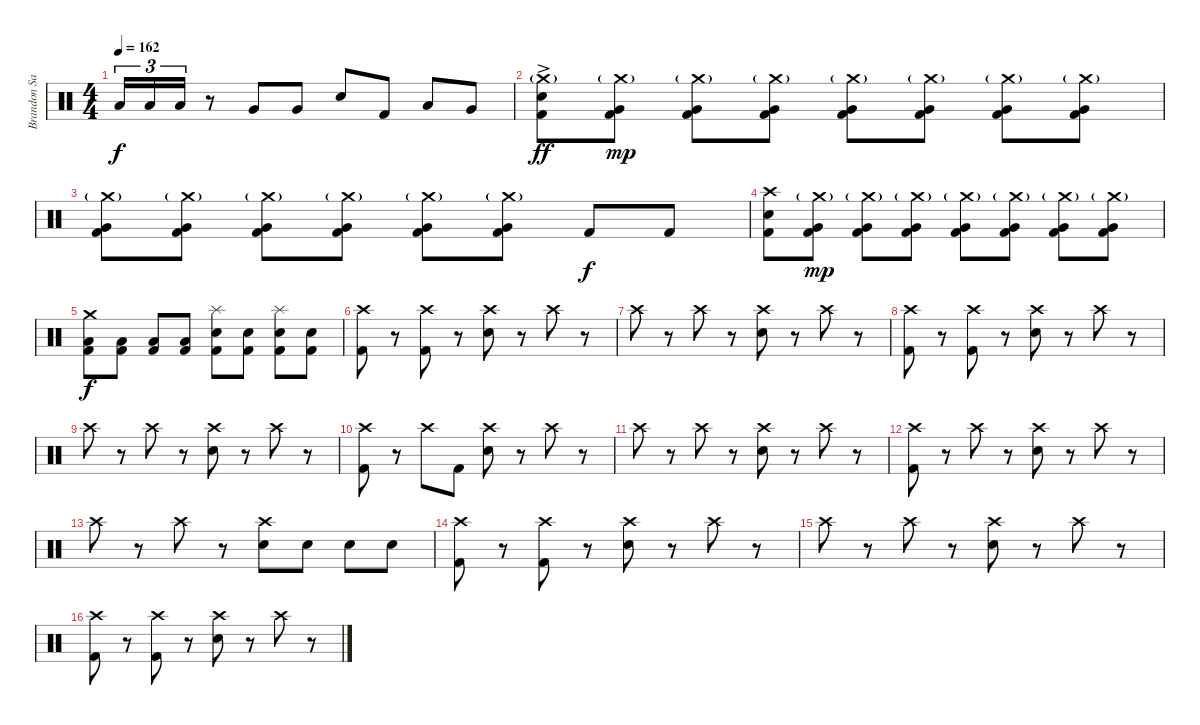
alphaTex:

\track ("Brandon Saller" "Brandon Sa") {instrument percussion}
\staff {score}
\articulation defaults
\ts (4 4)
\tempo 162
\clef neutral
\ks c "Low Floor Tom (hit)".16{tu (3 2) dy f} "Low Floor Tom (hit)".16{tu (3 2)} "Low Floor Tom (hit)".16{tu (3 2)}
r.8 "Very Low Tom (hit)".8 "Very Low Tom (hit)".8 "Electric Snare (hit)".8 "Kick (hit) 2".8 "Low Tom (hit)".8 "Very Low Tom (hit)".8{volume 6} |
("Crash medium (hit)"{g} "Electric Snare (hit)"{ac} "Kick (hit) 2").8{dy ff volume 16} ("Crash medium (hit)"{g} "Very Low Tom (hit)" "Kick (hit) 2").8{dy mp} ("Crash medium (hit)"{g} "Very Low Tom (hit)" "Kick (hit) 2").8 ("Crash medium (hit)"{g} "Very Low Tom (hit)" "Kick (hit) 2").8 ("Crash medium (hit)"{g} "Very Low Tom (hit)" "Kick (hit) 2").8 ("Crash medium (hit)"{g} "Very Low Tom (hit)" "Kick (hit) 2").8 ("Crash medium (hit)"{g} "Very Low Tom (hit)" "Kick (hit) 2").8 ("Crash medium (hit)"{g} "Very Low Tom (hit)" "Kick (hit) 2").8 |
("Crash medium (hit)"{g} "Very Low Tom (hit)" "Kick (hit) 2").8 ("Crash medium (hit)"{g} "Very Low Tom (hit)" "Kick (hit) 2").8 ("Crash medium (hit)"{g} "Very Low Tom (hit)" "Kick (hit) 2").8 ("Crash medium (hit)"{g} "Very Low Tom (hit)" "Kick (hit) 2").8 ("Crash medium (hit)"{g} "Very Low Tom (hit)" "Kick (hit) 2").8 ("Crash medium (hit)"{g} "Very Low Tom (hit)" "Kick (hit) 2").8 "Kick (hit) 2".8{dy f} "Kick (hit) 2".8 |
("Crash high (hit)" "Electric Snare (hit)" "Kick (hit) 2").8 ("Crash medium (hit)"{g} "Very Low Tom (hit)" "Kick (hit) 2").8{dy mp} ("Crash medium (hit)"{g} "Very Low Tom (hit)" "Kick (hit) 2").8 ("Crash medium (hit)"{g} "Very Low Tom (hit)" "Kick (hit) 2").8 ("Crash medium (hit)"{g} "Very Low Tom (hit)" "Kick (hit) 2").8 ("Crash medium (hit)"{g} "Very Low Tom (hit)" "Kick (hit) 2").8 ("Crash medium (hit)"{g} "Very Low Tom (hit)" "Kick (hit) 2").8 ("Crash medium (hit)"{g} "Very Low Tom (hit)" "Kick (hit) 2").8 |
("Crash medium (hit)" "Low Floor Tom (hit)" "Kick (hit) 2").8{dy f} ("Low Floor Tom (hit)" "Kick (hit) 2").8 ("Low Floor Tom (hit)" "Kick (hit) 2").8 ("Low Floor Tom (hit)" "Kick (hit) 2").8 ("Splash (hit)" "Electric Snare (hit)" "Kick (hit) 2").8 ("Electric Snare (hit)" "Kick (hit) 2").8 ("Splash (hit)" "Electric Snare (hit)" "Kick (hit) 2").8 ("Electric Snare (hit)" "Kick (hit) 2").8 |
("Crash high (hit)" "Kick (hit) 2").8 r.8 ("Crash high (hit)" "Kick (hit) 2").8 r.8 ("Crash high (hit)" "Electric Snare (hit)").8 r.8 "Crash high (hit)".8 r.8 |
"Crash high (hit)".8 r.8 "Crash high (hit)".8 r.8 ("Crash high (hit)" "Electric Snare (hit)").8 r.8 "Crash high (hit)".8 r.8 |
("Crash high (hit)" "Kick (hit) 2").8 r.8 ("Crash high (hit)" "Kick (hit) 2").8 r.8 ("Crash high (hit)" "Electric Snare (hit)").8 r.8 "Crash high (hit)".8 r.8 |
"Crash high (hit)".8 r.8 "Crash high (hit)".8 r.8 ("Crash high (hit)" "Electric Snare (hit)").8 r.8 "Crash high (hit)".8 r.8 |
("Crash high (hit)" "Kick (hit) 2").8 r.8 "Crash high (hit)".8 "Kick (hit) 2".8 ("Crash high (hit)" "Electric Snare (hit)").8 r.8 "Crash high (hit)".8 r.8 |
"Crash high (hit)".8 r.8 "Crash high (hit)".8 r.8 ("Crash high (hit)" "Electric Snare (hit)").8 r.8 "Crash high (hit)".8 r.8 |
("Crash high (hit)" "Kick (hit) 2").8 r.8 "Crash high (hit)".8 r.8 ("Crash high (hit)" "Electric Snare (hit)").8 r.8 "Crash high (hit)".8 r.8 |
"Crash high (hit)".8 r.8 "Crash high (hit)".8 r.8 ("Crash high (hit)" "Electric Snare (hit)").8 "Electric Snare (hit)".8 "Electric Snare (hit)".8 "Electric Snare (hit)".8 |
("Crash high (hit)" "Kick (hit) 2").8 r.8 ("Crash high (hit)" "Kick (hit) 2").8 r.8 ("Crash high (hit)" "Electric Snare (hit)").8 r.8 "Crash high (hit)".8 r.8 |
"Crash high (hit)".8 r.8 "Crash high (hit)".8 r.8 ("Crash high (hit)" "Electric Snare (hit)").8 r.8 "Crash high (hit)".8 r.8 |
("Crash high (hit)" "Kick (hit) 2").8 r.8 ("Crash high (hit)" "Kick (hit) 2").8 r.8 ("Crash high (hit)" "Electric Snare (hit)").8 r.8 "Crash high (hit)".8 r.8
